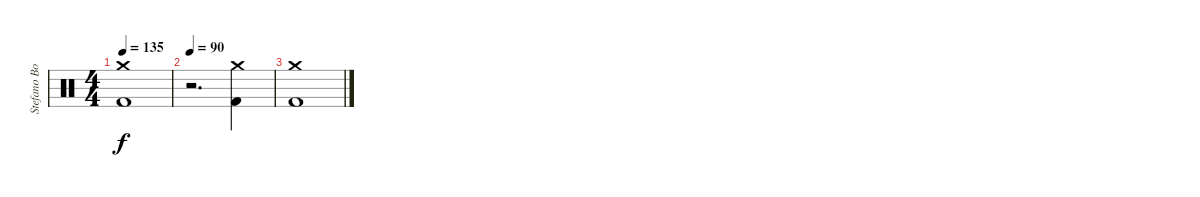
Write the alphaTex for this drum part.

\track ("Stefano Bonini" "Stefano Bo") {instrument percussion}
\staff {score}
\articulation defaults
\ts (4 4)
\tempo 135
\clef neutral
\ks c
("Crash medium (hit)" "Kick (hit) 2").1{dy f} |
\tempo 90
r.2{d} ("Crash medium (hit)" "Kick (hit) 2").4 |
("Crash medium (hit)" "Kick (hit) 2").1
